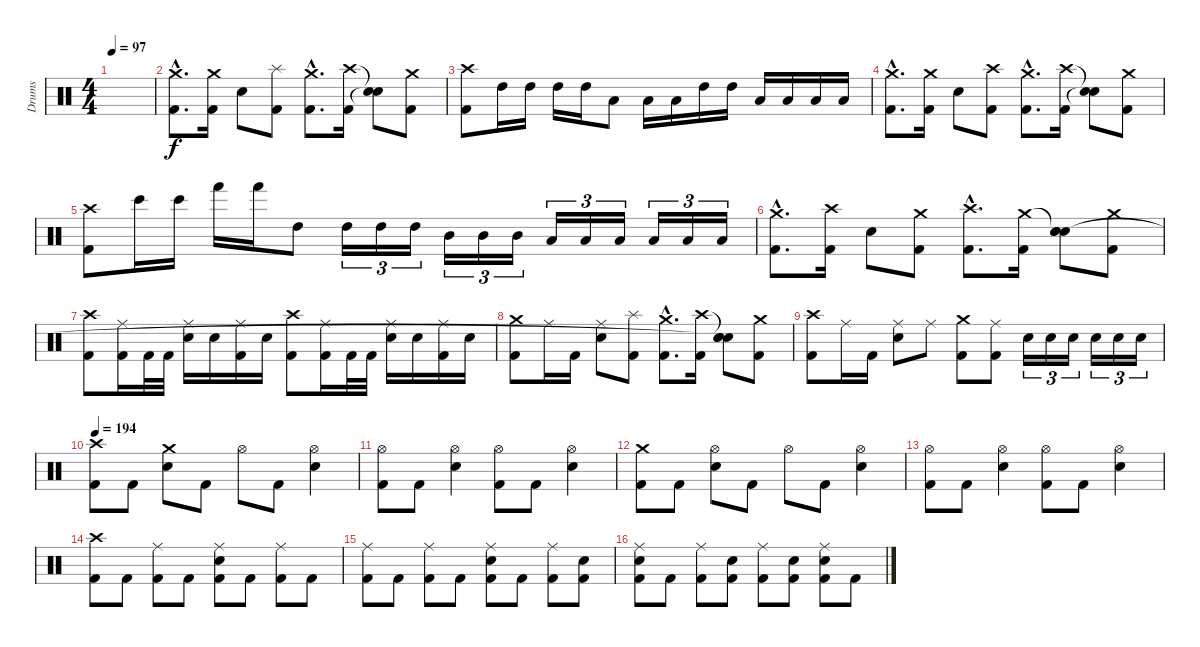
\track ("Drums" "Drums") {instrument percussion}
\staff {score}
\articulation defaults
\ts (4 4)
\tempo 97
\clef neutral
\ks c
|
("Crash medium (hit)"{hac} "Kick (hit) 2"{hac}).8{d} ("Crash medium (hit)" "Kick (hit) 2").16 "Electric Snare (hit)".8 ("Splash (hit)" "Kick (hit) 2").8 ("Crash medium (hit)"{hac} "Kick (hit) 2"{hac}).8{d} ("Crash high (hit)" "Kick (hit) 2").16 ("Snare (hit)"{t} "Snare (hit)"{t}).8 ("Crash medium (hit)" "Kick (hit) 2").8 |
("Crash high (hit)" "Kick (hit) 2").8 "High Tom (hit)".16 "High Tom (hit)".16 "High Tom (hit)".16 "High Tom (hit)".16 "Low Tom (hit)".8 "Low Tom (hit)".16 "Low Tom (hit)".16 "High Tom (hit)".16 "High Tom (hit)".16 "Low Tom (hit)".16 "Low Tom (hit)".16 "Low Floor Tom (hit)".16 "Low Floor Tom (hit)".16 |
("Crash medium (hit)"{hac} "Kick (hit) 2"{hac}).8{d} ("Crash medium (hit)" "Kick (hit) 2").16 "Electric Snare (hit)".8 ("Crash high (hit)" "Kick (hit) 2").8 ("Crash medium (hit)"{hac} "Kick (hit) 2"{hac}).8{d} ("Crash high (hit)" "Kick (hit) 2").16 ("Snare (hit)"{t} "Snare (hit)"{t}).8 ("Crash medium (hit)" "Kick (hit) 2").8 |
("Crash high (hit)" "Kick (hit) 2").8 "Bongo High (hit)".16 "Bongo High (hit)".16 "Hand (hit)".16 "Hand (hit)".16 "High Tom (hit)".8 "High Tom (hit)".16{tu (3 2)} "High Tom (hit)".16{tu (3 2)} "High Tom (hit)".16{tu (3 2)} "Mid Tom (hit)".16{tu (3 2)} "Mid Tom (hit)".16{tu (3 2)} "Mid Tom (hit)".16{tu (3 2)} "Low Tom (hit)".16{tu (3 2)} "Low Tom (hit)".16{tu (3 2)} "Low Tom (hit)".16{tu (3 2)} "Low Floor Tom (hit)".16{tu (3 2)} "Low Floor Tom (hit)".16{tu (3 2)} "Low Floor Tom (hit)".16{tu (3 2)} |
("Crash medium (hit)"{hac} "Kick (hit) 2"{hac}).8{d} ("Crash high (hit)" "Kick (hit) 2").16 "Electric Snare (hit)".8 ("Crash medium (hit)" "Kick (hit) 2").8 ("Crash high (hit)"{hac} "Kick (hit) 2"{hac}).8{d} ("Crash medium (hit)" "Kick (hit) 2").16 ("Snare (hit)"{t} "Electric Snare (hit)" "Snare (hit)").8 ("Crash medium (hit)" "Kick (hit) 2").8 |
("Crash high (hit)" "Kick (hit) 2").8 ("Ride (middle)" "Kick (hit) 2").16 "Kick (hit) 2".32 "Kick (hit) 2".32 ("Ride (middle)" "Electric Snare (hit)").16 "Electric Snare (hit)".16 ("Ride (middle)" "Kick (hit) 2").16 "Electric Snare (hit)".16 ("Crash high (hit)" "Kick (hit) 2").8 ("Ride (middle)" "Kick (hit) 2").16 "Kick (hit) 2".32 "Kick (hit) 2".32 ("Ride (middle)" "Electric Snare (hit)").16 "Electric Snare (hit)".16 ("Ride (middle)" "Kick (hit) 2").16 "Electric Snare (hit)".16 |
("Crash medium (hit)" "Kick (hit) 2").8 "Ride (middle)".16 "Kick (hit) 2".16 ("Ride (middle)" "Electric Snare (hit)").8 ("Splash (hit)" "Kick (hit) 2").8 ("Crash medium (hit)"{hac} "Kick (hit) 2"{hac}).8{d} ("Crash high (hit)" "Kick (hit) 2").16 ("Snare (hit)"{t} "Electric Snare (hit)" "Snare (hit)"{t}).8 ("Crash medium (hit)" "Kick (hit) 2").8 |
("Crash high (hit)" "Kick (hit) 2").8 "Ride (middle)".16 "Kick (hit) 2".16 ("Ride (middle)" "Electric Snare (hit)").8 "Ride (middle)".8 ("Crash medium (hit)" "Kick (hit) 2").8 ("Ride (middle)" "Kick (hit) 2").8 "Electric Snare (hit)".16{tu (3 2)} "Electric Snare (hit)".16{tu (3 2)} "Electric Snare (hit)".16{tu (3 2)} "Electric Snare (hit)".16{tu (3 2)} "Electric Snare (hit)".16{tu (3 2)} "Electric Snare (hit)".16{tu (3 2)} |
\tempo 194
("Crash high (hit)" "Kick (hit) 2").8 "Kick (hit) 2".8 ("Crash medium (hit)" "Electric Snare (hit)").8 "Kick (hit) 2".8 "Hi-Hat (open)".8 "Kick (hit) 2".8 ("Hi-Hat (open)" "Electric Snare (hit)").4 |
("Hi-Hat (open)" "Kick (hit) 2").8 "Kick (hit) 2".8 ("Hi-Hat (open)" "Electric Snare (hit)").4 ("Hi-Hat (open)" "Kick (hit) 2").8 "Kick (hit) 2".8 ("Hi-Hat (open)" "Electric Snare (hit)").4 |
("Crash medium (hit)" "Kick (hit) 2").8 "Kick (hit) 2".8 ("Hi-Hat (open)" "Electric Snare (hit)").8 "Kick (hit) 2".8 "Hi-Hat (open)".8 "Kick (hit) 2".8 ("Hi-Hat (open)" "Electric Snare (hit)").4 |
("Hi-Hat (open)" "Kick (hit) 2").8 "Kick (hit) 2".8 ("Hi-Hat (open)" "Electric Snare (hit)").4 ("Hi-Hat (open)" "Kick (hit) 2").8 "Kick (hit) 2".8 ("Hi-Hat (open)" "Electric Snare (hit)").4 |
("Crash high (hit)" "Kick (hit) 2").8 "Kick (hit) 2".8 ("Ride (middle)" "Kick (hit) 2").8 "Kick (hit) 2".8 ("Ride (middle)" "Electric Snare (hit)" "Kick (hit) 2").8 "Kick (hit) 2".8 ("Ride (middle)" "Kick (hit) 2").8 "Kick (hit) 2".8 |
("Ride (middle)" "Kick (hit) 2").8 "Kick (hit) 2".8 ("Ride (middle)" "Kick (hit) 2").8 "Kick (hit) 2".8 ("Ride (middle)" "Electric Snare (hit)" "Kick (hit) 2").8 "Kick (hit) 2".8 ("Ride (middle)" "Kick (hit) 2").8 ("Electric Snare (hit)" "Kick (hit) 2").8 |
("Ride (middle)" "Electric Snare (hit)" "Kick (hit) 2").8 "Kick (hit) 2".8 ("Ride (middle)" "Kick (hit) 2").8 ("Electric Snare (hit)" "Kick (hit) 2").8 ("Ride (middle)" "Kick (hit) 2").8 ("Electric Snare (hit)" "Kick (hit) 2").8 ("Ride (middle)" "Electric Snare (hit)" "Kick (hit) 2").8 "Kick (hit) 2".8
